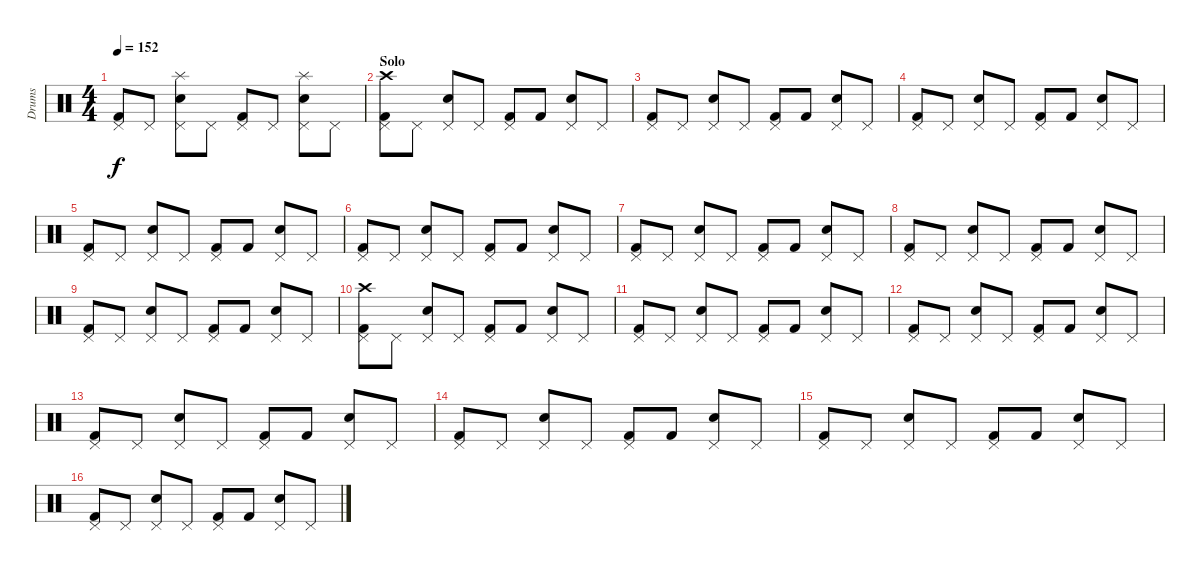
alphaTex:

\track ("Drums" "Drums") {instrument percussion}
\staff {score}
\articulation defaults
\ts (4 4)
\tempo 152
\clef neutral
\ks c
("Kick (hit) 2" "Pedal Hi-Hat (hit)").8{dy f} "Pedal Hi-Hat (hit)".8 ("Snare (hit) 2" "Pedal Hi-Hat (hit)" "Splash (hit)").8 "Pedal Hi-Hat (hit)".8 ("Kick (hit) 2" "Pedal Hi-Hat (hit)").8 "Pedal Hi-Hat (hit)".8 ("Snare (hit) 2" "Pedal Hi-Hat (hit)" "Splash (hit)").8 "Pedal Hi-Hat (hit)".8 |
\section ("" "Solo")
("Kick (hit) 2" "Pedal Hi-Hat (hit)" "Crash high (hit)").8 "Pedal Hi-Hat (hit)".8 ("Snare (hit) 2" "Pedal Hi-Hat (hit)").8 "Pedal Hi-Hat (hit)".8 ("Kick (hit) 2" "Pedal Hi-Hat (hit)").8 "Kick (hit) 2".8 ("Snare (hit) 2" "Pedal Hi-Hat (hit)").8 "Pedal Hi-Hat (hit)".8 |
("Kick (hit) 2" "Pedal Hi-Hat (hit)").8 "Pedal Hi-Hat (hit)".8 ("Snare (hit) 2" "Pedal Hi-Hat (hit)").8 "Pedal Hi-Hat (hit)".8 ("Kick (hit) 2" "Pedal Hi-Hat (hit)").8 "Kick (hit) 2".8 ("Snare (hit) 2" "Pedal Hi-Hat (hit)").8 "Pedal Hi-Hat (hit)".8 |
("Kick (hit) 2" "Pedal Hi-Hat (hit)").8 "Pedal Hi-Hat (hit)".8 ("Snare (hit) 2" "Pedal Hi-Hat (hit)").8 "Pedal Hi-Hat (hit)".8 ("Kick (hit) 2" "Pedal Hi-Hat (hit)").8 "Kick (hit) 2".8 ("Snare (hit) 2" "Pedal Hi-Hat (hit)").8 "Pedal Hi-Hat (hit)".8 |
("Kick (hit) 2" "Pedal Hi-Hat (hit)").8 "Pedal Hi-Hat (hit)".8 ("Snare (hit) 2" "Pedal Hi-Hat (hit)").8 "Pedal Hi-Hat (hit)".8 ("Kick (hit) 2" "Pedal Hi-Hat (hit)").8 "Kick (hit) 2".8 ("Snare (hit) 2" "Pedal Hi-Hat (hit)").8 "Pedal Hi-Hat (hit)".8 |
("Kick (hit) 2" "Pedal Hi-Hat (hit)").8 "Pedal Hi-Hat (hit)".8 ("Snare (hit) 2" "Pedal Hi-Hat (hit)").8 "Pedal Hi-Hat (hit)".8 ("Kick (hit) 2" "Pedal Hi-Hat (hit)").8 "Kick (hit) 2".8 ("Snare (hit) 2" "Pedal Hi-Hat (hit)").8 "Pedal Hi-Hat (hit)".8 |
("Kick (hit) 2" "Pedal Hi-Hat (hit)").8 "Pedal Hi-Hat (hit)".8 ("Snare (hit) 2" "Pedal Hi-Hat (hit)").8 "Pedal Hi-Hat (hit)".8 ("Kick (hit) 2" "Pedal Hi-Hat (hit)").8 "Kick (hit) 2".8 ("Snare (hit) 2" "Pedal Hi-Hat (hit)").8 "Pedal Hi-Hat (hit)".8 |
("Kick (hit) 2" "Pedal Hi-Hat (hit)").8 "Pedal Hi-Hat (hit)".8 ("Snare (hit) 2" "Pedal Hi-Hat (hit)").8 "Pedal Hi-Hat (hit)".8 ("Kick (hit) 2" "Pedal Hi-Hat (hit)").8 "Kick (hit) 2".8 ("Snare (hit) 2" "Pedal Hi-Hat (hit)").8 "Pedal Hi-Hat (hit)".8 |
("Kick (hit) 2" "Pedal Hi-Hat (hit)").8 "Pedal Hi-Hat (hit)".8 ("Snare (hit) 2" "Pedal Hi-Hat (hit)").8 "Pedal Hi-Hat (hit)".8 ("Kick (hit) 2" "Pedal Hi-Hat (hit)").8 "Kick (hit) 2".8 ("Snare (hit) 2" "Pedal Hi-Hat (hit)").8 "Pedal Hi-Hat (hit)".8 |
("Kick (hit) 2" "Pedal Hi-Hat (hit)" "Crash high (hit)").8 "Pedal Hi-Hat (hit)".8 ("Snare (hit) 2" "Pedal Hi-Hat (hit)").8 "Pedal Hi-Hat (hit)".8 ("Kick (hit) 2" "Pedal Hi-Hat (hit)").8 "Kick (hit) 2".8 ("Snare (hit) 2" "Pedal Hi-Hat (hit)").8 "Pedal Hi-Hat (hit)".8 |
("Kick (hit) 2" "Pedal Hi-Hat (hit)").8 "Pedal Hi-Hat (hit)".8 ("Snare (hit) 2" "Pedal Hi-Hat (hit)").8 "Pedal Hi-Hat (hit)".8 ("Kick (hit) 2" "Pedal Hi-Hat (hit)").8 "Kick (hit) 2".8 ("Snare (hit) 2" "Pedal Hi-Hat (hit)").8 "Pedal Hi-Hat (hit)".8 |
("Kick (hit) 2" "Pedal Hi-Hat (hit)").8 "Pedal Hi-Hat (hit)".8 ("Snare (hit) 2" "Pedal Hi-Hat (hit)").8 "Pedal Hi-Hat (hit)".8 ("Kick (hit) 2" "Pedal Hi-Hat (hit)").8 "Kick (hit) 2".8 ("Snare (hit) 2" "Pedal Hi-Hat (hit)").8 "Pedal Hi-Hat (hit)".8 |
("Kick (hit) 2" "Pedal Hi-Hat (hit)").8 "Pedal Hi-Hat (hit)".8 ("Snare (hit) 2" "Pedal Hi-Hat (hit)").8 "Pedal Hi-Hat (hit)".8 ("Kick (hit) 2" "Pedal Hi-Hat (hit)").8 "Kick (hit) 2".8 ("Snare (hit) 2" "Pedal Hi-Hat (hit)").8 "Pedal Hi-Hat (hit)".8 |
("Kick (hit) 2" "Pedal Hi-Hat (hit)").8 "Pedal Hi-Hat (hit)".8 ("Snare (hit) 2" "Pedal Hi-Hat (hit)").8 "Pedal Hi-Hat (hit)".8 ("Kick (hit) 2" "Pedal Hi-Hat (hit)").8 "Kick (hit) 2".8 ("Snare (hit) 2" "Pedal Hi-Hat (hit)").8 "Pedal Hi-Hat (hit)".8 |
("Kick (hit) 2" "Pedal Hi-Hat (hit)").8 "Pedal Hi-Hat (hit)".8 ("Snare (hit) 2" "Pedal Hi-Hat (hit)").8 "Pedal Hi-Hat (hit)".8 ("Kick (hit) 2" "Pedal Hi-Hat (hit)").8 "Kick (hit) 2".8 ("Snare (hit) 2" "Pedal Hi-Hat (hit)").8 "Pedal Hi-Hat (hit)".8 |
("Kick (hit) 2" "Pedal Hi-Hat (hit)").8 "Pedal Hi-Hat (hit)".8 ("Snare (hit) 2" "Pedal Hi-Hat (hit)").8 "Pedal Hi-Hat (hit)".8 ("Kick (hit) 2" "Pedal Hi-Hat (hit)").8 "Kick (hit) 2".8 ("Snare (hit) 2" "Pedal Hi-Hat (hit)").8 "Pedal Hi-Hat (hit)".8
